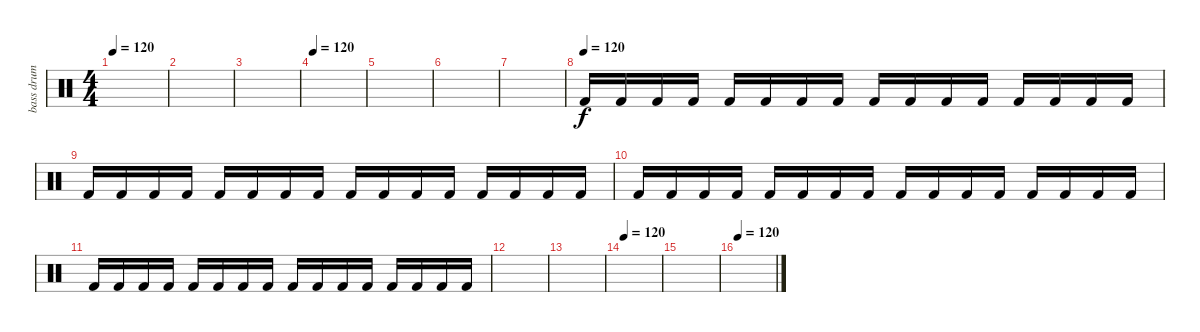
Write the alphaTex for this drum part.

\track ("bass drum" "bass drum") {instrument percussion}
\staff {score}
\articulation defaults
\ts (4 4)
\tempo 120
\clef neutral
\ks c
|
|
|
\tempo 120
|
|
|
|
\tempo (120)
"Kick (hit) 2".16 "Kick (hit) 2".16 "Kick (hit) 2".16 "Kick (hit) 2".16 "Kick (hit) 2".16 "Kick (hit) 2".16 "Kick (hit) 2".16 "Kick (hit) 2".16 "Kick (hit) 2".16 "Kick (hit) 2".16 "Kick (hit) 2".16 "Kick (hit) 2".16 "Kick (hit) 2".16 "Kick (hit) 2".16 "Kick (hit) 2".16 "Kick (hit) 2".16 |
"Kick (hit) 2".16 "Kick (hit) 2".16 "Kick (hit) 2".16 "Kick (hit) 2".16 "Kick (hit) 2".16 "Kick (hit) 2".16 "Kick (hit) 2".16 "Kick (hit) 2".16 "Kick (hit) 2".16 "Kick (hit) 2".16 "Kick (hit) 2".16 "Kick (hit) 2".16 "Kick (hit) 2".16 "Kick (hit) 2".16 "Kick (hit) 2".16 "Kick (hit) 2".16 |
"Kick (hit) 2".16 "Kick (hit) 2".16 "Kick (hit) 2".16 "Kick (hit) 2".16 "Kick (hit) 2".16 "Kick (hit) 2".16 "Kick (hit) 2".16 "Kick (hit) 2".16 "Kick (hit) 2".16 "Kick (hit) 2".16 "Kick (hit) 2".16 "Kick (hit) 2".16 "Kick (hit) 2".16 "Kick (hit) 2".16 "Kick (hit) 2".16 "Kick (hit) 2".16 |
"Kick (hit) 2".16 "Kick (hit) 2".16 "Kick (hit) 2".16 "Kick (hit) 2".16 "Kick (hit) 2".16 "Kick (hit) 2".16 "Kick (hit) 2".16 "Kick (hit) 2".16 "Kick (hit) 2".16 "Kick (hit) 2".16 "Kick (hit) 2".16 "Kick (hit) 2".16 "Kick (hit) 2".16 "Kick (hit) 2".16 "Kick (hit) 2".16 "Kick (hit) 2".16 |
|
|
\tempo 120
|
|
\tempo 120
